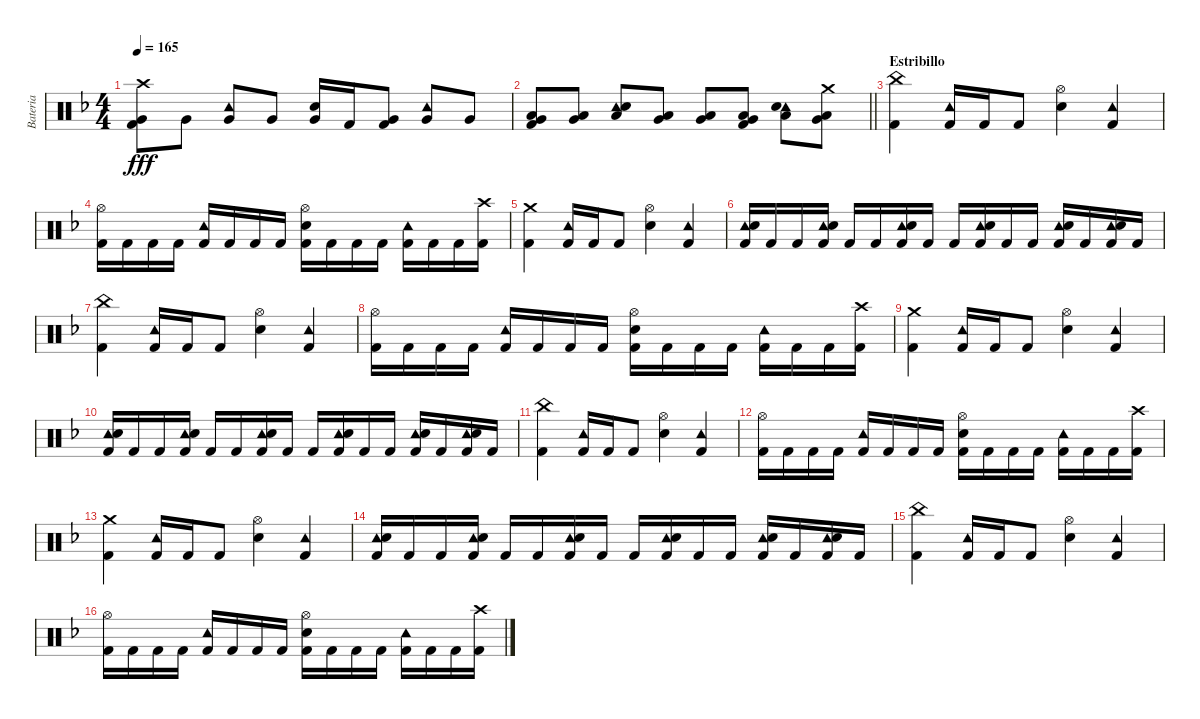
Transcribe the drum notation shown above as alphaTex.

\track ("Bateria" "Bateria") {instrument percussion}
\staff {score}
\articulation defaults
\ts (4 4)
\tempo 165
\clef neutral
\ks f
("Crash high (hit)" "Very Low Tom (hit)" "Kick (hit) 2").8{dy fff} "Very Low Tom (hit)".8 ("Tambourine (hit)" "Very Low Tom (hit)").8 "Very Low Tom (hit)".8 ("Snare (hit) 2" "Very Low Tom (hit)").16 "Kick (hit) 2".16 ("Very Low Tom (hit)" "Kick (hit) 2").8 ("Tambourine (hit)" "Very Low Tom (hit)").8 "Very Low Tom (hit)".8 |
\barLineRight lightlight
("Low Floor Tom (hit)" "Very Low Tom (hit)" "Kick (hit) 2").8 ("Low Floor Tom (hit)" "Very Low Tom (hit)").8 ("Low Floor Tom (hit)" "Tambourine (hit)" "Snare (hit) 2").8 ("Low Floor Tom (hit)" "Very Low Tom (hit)").8 ("Low Floor Tom (hit)" "Very Low Tom (hit)").8 ("Low Floor Tom (hit)" "Very Low Tom (hit)" "Kick (hit) 2").8 ("Low Floor Tom (hit)" "Tambourine (hit)" "Snare (hit) 2").8 ("Crash medium (hit)" "Low Floor Tom (hit)" "Very Low Tom (hit)").8 |
\section ("" "Estribillo")
("China (hit)" "Kick (hit) 2").4 ("Tambourine (hit)" "Kick (hit) 2").16 "Kick (hit) 2".16 "Kick (hit) 2".8 ("Hi-Hat (open)" "Snare (hit) 2").4 ("Tambourine (hit)" "Kick (hit) 2").4 |
("Hi-Hat (open)" "Kick (hit) 2").16 "Kick (hit) 2".16 "Kick (hit) 2".16 "Kick (hit) 2".16 ("Tambourine (hit)" "Kick (hit) 2").16 "Kick (hit) 2".16 "Kick (hit) 2".16 "Kick (hit) 2".16 ("Hi-Hat (open)" "Snare (hit) 2" "Kick (hit) 2").16 "Kick (hit) 2".16 "Kick (hit) 2".16 "Kick (hit) 2".16 ("Tambourine (hit)" "Kick (hit) 2").16 "Kick (hit) 2".16 "Kick (hit) 2".16 ("Crash high (hit)" "Kick (hit) 2").16 |
("Crash medium (hit)" "Kick (hit) 2").4 ("Tambourine (hit)" "Kick (hit) 2").16 "Kick (hit) 2".16 "Kick (hit) 2".8 ("Hi-Hat (open)" "Snare (hit) 2").4 ("Tambourine (hit)" "Kick (hit) 2").4 |
("Tambourine (hit)" "Snare (hit) 2" "Kick (hit) 2").16 "Kick (hit) 2".16 "Kick (hit) 2".16 ("Tambourine (hit)" "Snare (hit) 2" "Kick (hit) 2").16 "Kick (hit) 2".16 "Kick (hit) 2".16 ("Tambourine (hit)" "Snare (hit) 2" "Kick (hit) 2").16 "Kick (hit) 2".16 "Kick (hit) 2".16 ("Tambourine (hit)" "Snare (hit) 2" "Kick (hit) 2").16 "Kick (hit) 2".16 "Kick (hit) 2".16 ("Tambourine (hit)" "Snare (hit) 2" "Kick (hit) 2").16 "Kick (hit) 2".16 ("Tambourine (hit)" "Snare (hit) 2" "Kick (hit) 2").16 "Kick (hit) 2".16 |
("China (hit)" "Kick (hit) 2").4 ("Tambourine (hit)" "Kick (hit) 2").16 "Kick (hit) 2".16 "Kick (hit) 2".8 ("Hi-Hat (open)" "Snare (hit) 2").4 ("Tambourine (hit)" "Kick (hit) 2").4 |
("Hi-Hat (open)" "Kick (hit) 2").16 "Kick (hit) 2".16 "Kick (hit) 2".16 "Kick (hit) 2".16 ("Tambourine (hit)" "Kick (hit) 2").16 "Kick (hit) 2".16 "Kick (hit) 2".16 "Kick (hit) 2".16 ("Hi-Hat (open)" "Snare (hit) 2" "Kick (hit) 2").16 "Kick (hit) 2".16 "Kick (hit) 2".16 "Kick (hit) 2".16 ("Tambourine (hit)" "Kick (hit) 2").16 "Kick (hit) 2".16 "Kick (hit) 2".16 ("Crash high (hit)" "Kick (hit) 2").16 |
("Crash medium (hit)" "Kick (hit) 2").4 ("Tambourine (hit)" "Kick (hit) 2").16 "Kick (hit) 2".16 "Kick (hit) 2".8 ("Hi-Hat (open)" "Snare (hit) 2").4 ("Tambourine (hit)" "Kick (hit) 2").4 |
("Tambourine (hit)" "Snare (hit) 2" "Kick (hit) 2").16 "Kick (hit) 2".16 "Kick (hit) 2".16 ("Tambourine (hit)" "Snare (hit) 2" "Kick (hit) 2").16 "Kick (hit) 2".16 "Kick (hit) 2".16 ("Tambourine (hit)" "Snare (hit) 2" "Kick (hit) 2").16 "Kick (hit) 2".16 "Kick (hit) 2".16 ("Tambourine (hit)" "Snare (hit) 2" "Kick (hit) 2").16 "Kick (hit) 2".16 "Kick (hit) 2".16 ("Tambourine (hit)" "Snare (hit) 2" "Kick (hit) 2").16 "Kick (hit) 2".16 ("Tambourine (hit)" "Snare (hit) 2" "Kick (hit) 2").16 "Kick (hit) 2".16 |
("China (hit)" "Kick (hit) 2").4 ("Tambourine (hit)" "Kick (hit) 2").16 "Kick (hit) 2".16 "Kick (hit) 2".8 ("Hi-Hat (open)" "Snare (hit) 2").4 ("Tambourine (hit)" "Kick (hit) 2").4 |
("Hi-Hat (open)" "Kick (hit) 2").16 "Kick (hit) 2".16 "Kick (hit) 2".16 "Kick (hit) 2".16 ("Tambourine (hit)" "Kick (hit) 2").16 "Kick (hit) 2".16 "Kick (hit) 2".16 "Kick (hit) 2".16 ("Hi-Hat (open)" "Snare (hit) 2" "Kick (hit) 2").16 "Kick (hit) 2".16 "Kick (hit) 2".16 "Kick (hit) 2".16 ("Tambourine (hit)" "Kick (hit) 2").16 "Kick (hit) 2".16 "Kick (hit) 2".16 ("Crash high (hit)" "Kick (hit) 2").16 |
("Crash medium (hit)" "Kick (hit) 2").4 ("Tambourine (hit)" "Kick (hit) 2").16 "Kick (hit) 2".16 "Kick (hit) 2".8 ("Hi-Hat (open)" "Snare (hit) 2").4 ("Tambourine (hit)" "Kick (hit) 2").4 |
("Tambourine (hit)" "Snare (hit) 2" "Kick (hit) 2").16 "Kick (hit) 2".16 "Kick (hit) 2".16 ("Tambourine (hit)" "Snare (hit) 2" "Kick (hit) 2").16 "Kick (hit) 2".16 "Kick (hit) 2".16 ("Tambourine (hit)" "Snare (hit) 2" "Kick (hit) 2").16 "Kick (hit) 2".16 "Kick (hit) 2".16 ("Tambourine (hit)" "Snare (hit) 2" "Kick (hit) 2").16 "Kick (hit) 2".16 "Kick (hit) 2".16 ("Tambourine (hit)" "Snare (hit) 2" "Kick (hit) 2").16 "Kick (hit) 2".16 ("Tambourine (hit)" "Snare (hit) 2" "Kick (hit) 2").16 "Kick (hit) 2".16 |
("China (hit)" "Kick (hit) 2").4 ("Tambourine (hit)" "Kick (hit) 2").16 "Kick (hit) 2".16 "Kick (hit) 2".8 ("Hi-Hat (open)" "Snare (hit) 2").4 ("Tambourine (hit)" "Kick (hit) 2").4 |
("Hi-Hat (open)" "Kick (hit) 2").16 "Kick (hit) 2".16 "Kick (hit) 2".16 "Kick (hit) 2".16 ("Tambourine (hit)" "Kick (hit) 2").16 "Kick (hit) 2".16 "Kick (hit) 2".16 "Kick (hit) 2".16 ("Hi-Hat (open)" "Snare (hit) 2" "Kick (hit) 2").16 "Kick (hit) 2".16 "Kick (hit) 2".16 "Kick (hit) 2".16 ("Tambourine (hit)" "Kick (hit) 2").16 "Kick (hit) 2".16 "Kick (hit) 2".16 ("Crash high (hit)" "Kick (hit) 2").16
